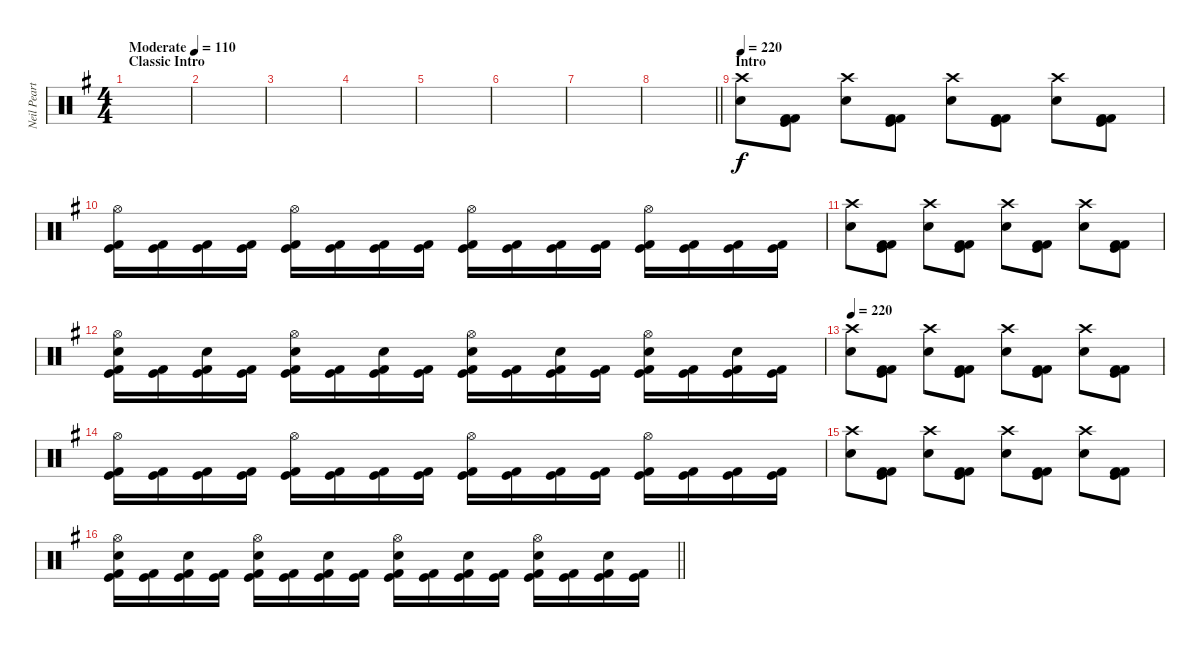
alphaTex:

\track ("Neil Peart" "Neil Peart") {instrument percussion}
\staff {score}
\articulation defaults
\ts (4 4)
\section ("" "Classic Intro")
\tempo (110 "Moderate")
\clef neutral
\ks g
|
|
|
|
|
|
|
\barLineRight lightlight
|
\section ("" "Intro")
\tempo 220
("Snare (hit) 2" "Crash high (hit)").8 ("Kick (hit)" "Kick (hit) 2" "Kick (hit) 2").8 ("Snare (hit) 2" "Crash high (hit)").8 ("Kick (hit)" "Kick (hit) 2" "Kick (hit) 2").8 ("Snare (hit) 2" "Crash high (hit)").8 ("Kick (hit)" "Kick (hit) 2" "Kick (hit) 2").8 ("Snare (hit) 2" "Crash high (hit)").8 ("Kick (hit)" "Kick (hit) 2" "Kick (hit) 2").8 |
("Hi-Hat (open)" "Kick (hit)" "Kick (hit) 2").16{balance 14} ("Kick (hit)" "Kick (hit) 2").16 ("Kick (hit)" "Kick (hit) 2").16 ("Kick (hit)" "Kick (hit) 2").16 ("Hi-Hat (open)" "Kick (hit)" "Kick (hit) 2").16 ("Kick (hit)" "Kick (hit) 2").16 ("Kick (hit)" "Kick (hit) 2").16 ("Kick (hit)" "Kick (hit) 2").16 ("Hi-Hat (open)" "Kick (hit)" "Kick (hit) 2").16 ("Kick (hit)" "Kick (hit) 2").16 ("Kick (hit)" "Kick (hit) 2").16 ("Kick (hit)" "Kick (hit) 2").16 ("Hi-Hat (open)" "Kick (hit)" "Kick (hit) 2").16 ("Kick (hit)" "Kick (hit) 2").16 ("Kick (hit)" "Kick (hit) 2").16 ("Kick (hit)" "Kick (hit) 2").16 |
("Snare (hit) 2" "Crash high (hit)").8{balance 8} ("Kick (hit)" "Kick (hit) 2" "Kick (hit) 2").8 ("Snare (hit) 2" "Crash high (hit)").8 ("Kick (hit)" "Kick (hit) 2" "Kick (hit) 2").8 ("Snare (hit) 2" "Crash high (hit)").8 ("Kick (hit)" "Kick (hit) 2" "Kick (hit) 2").8 ("Snare (hit) 2" "Crash high (hit)").8 ("Kick (hit)" "Kick (hit) 2" "Kick (hit) 2").8 |
("Hi-Hat (open)" "Kick (hit)" "Kick (hit) 2" "Snare (hit) 2").16{balance 3} ("Kick (hit)" "Kick (hit) 2").16 ("Kick (hit)" "Kick (hit) 2" "Snare (hit) 2").16 ("Kick (hit)" "Kick (hit) 2").16 ("Hi-Hat (open)" "Kick (hit)" "Kick (hit) 2" "Snare (hit) 2").16 ("Kick (hit)" "Kick (hit) 2").16 ("Kick (hit)" "Kick (hit) 2" "Snare (hit) 2").16 ("Kick (hit)" "Kick (hit) 2").16 ("Hi-Hat (open)" "Kick (hit)" "Kick (hit) 2" "Snare (hit) 2").16 ("Kick (hit)" "Kick (hit) 2").16 ("Kick (hit)" "Kick (hit) 2" "Snare (hit) 2").16 ("Kick (hit)" "Kick (hit) 2").16 ("Hi-Hat (open)" "Kick (hit)" "Kick (hit) 2" "Snare (hit) 2").16 ("Kick (hit)" "Kick (hit) 2").16 ("Kick (hit)" "Kick (hit) 2" "Snare (hit) 2").16 ("Kick (hit)" "Kick (hit) 2").16 |
\tempo 220
("Snare (hit) 2" "Crash high (hit)").8{balance 8} ("Kick (hit)" "Kick (hit) 2" "Kick (hit) 2").8 ("Snare (hit) 2" "Crash high (hit)").8 ("Kick (hit)" "Kick (hit) 2" "Kick (hit) 2").8 ("Snare (hit) 2" "Crash high (hit)").8 ("Kick (hit)" "Kick (hit) 2" "Kick (hit) 2").8 ("Snare (hit) 2" "Crash high (hit)").8 ("Kick (hit)" "Kick (hit) 2" "Kick (hit) 2").8 |
("Hi-Hat (open)" "Kick (hit)" "Kick (hit) 2").16{balance 13} ("Kick (hit)" "Kick (hit) 2").16 ("Kick (hit)" "Kick (hit) 2").16 ("Kick (hit)" "Kick (hit) 2").16 ("Hi-Hat (open)" "Kick (hit)" "Kick (hit) 2").16 ("Kick (hit)" "Kick (hit) 2").16 ("Kick (hit)" "Kick (hit) 2").16 ("Kick (hit)" "Kick (hit) 2").16 ("Hi-Hat (open)" "Kick (hit)" "Kick (hit) 2").16 ("Kick (hit)" "Kick (hit) 2").16 ("Kick (hit)" "Kick (hit) 2").16 ("Kick (hit)" "Kick (hit) 2").16 ("Hi-Hat (open)" "Kick (hit)" "Kick (hit) 2").16 ("Kick (hit)" "Kick (hit) 2").16 ("Kick (hit)" "Kick (hit) 2").16 ("Kick (hit)" "Kick (hit) 2").16 |
("Snare (hit) 2" "Crash high (hit)").8{balance 8} ("Kick (hit)" "Kick (hit) 2" "Kick (hit) 2").8 ("Snare (hit) 2" "Crash high (hit)").8 ("Kick (hit)" "Kick (hit) 2" "Kick (hit) 2").8 ("Snare (hit) 2" "Crash high (hit)").8 ("Kick (hit)" "Kick (hit) 2" "Kick (hit) 2").8 ("Snare (hit) 2" "Crash high (hit)").8 ("Kick (hit)" "Kick (hit) 2" "Kick (hit) 2").8 |
\barLineRight lightlight
("Hi-Hat (open)" "Kick (hit)" "Kick (hit) 2" "Snare (hit) 2").16{balance 3} ("Kick (hit)" "Kick (hit) 2").16 ("Kick (hit)" "Kick (hit) 2" "Snare (hit) 2").16 ("Kick (hit)" "Kick (hit) 2").16 ("Hi-Hat (open)" "Kick (hit)" "Kick (hit) 2" "Snare (hit) 2").16 ("Kick (hit)" "Kick (hit) 2").16 ("Kick (hit)" "Kick (hit) 2" "Snare (hit) 2").16 ("Kick (hit)" "Kick (hit) 2").16 ("Hi-Hat (open)" "Kick (hit)" "Kick (hit) 2" "Snare (hit) 2").16 ("Kick (hit)" "Kick (hit) 2").16 ("Kick (hit)" "Kick (hit) 2" "Snare (hit) 2").16 ("Kick (hit)" "Kick (hit) 2").16 ("Hi-Hat (open)" "Kick (hit)" "Kick (hit) 2" "Snare (hit) 2").16 ("Kick (hit)" "Kick (hit) 2").16 ("Kick (hit)" "Kick (hit) 2" "Snare (hit) 2").16 ("Kick (hit)" "Kick (hit) 2").16
